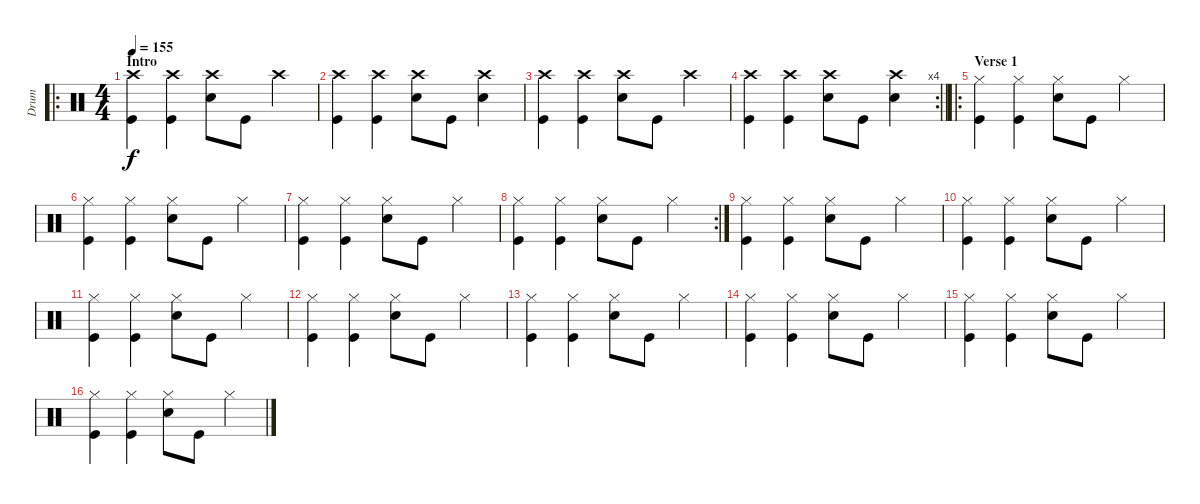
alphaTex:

\track ("Drum" "Drum") {instrument percussion}
\staff {score}
\articulation defaults
\ro
\ts (4 4)
\section ("" "Intro")
\tempo 155
\clef neutral
\ks c
("Crash high (hit)" "Kick (hit)").4{dy f} ("Crash high (hit)" "Kick (hit)").4 ("Crash high (hit)" "Snare (hit) 2").8 "Kick (hit)".8 "Crash high (hit)".4 |
("Crash high (hit)" "Kick (hit)").4 ("Crash high (hit)" "Kick (hit)").4 ("Crash high (hit)" "Snare (hit) 2").8 "Kick (hit)".8 ("Crash high (hit)" "Snare (hit) 2").4 |
("Crash high (hit)" "Kick (hit)").4 ("Crash high (hit)" "Kick (hit)").4 ("Crash high (hit)" "Snare (hit) 2").8 "Kick (hit)".8 "Crash high (hit)".4 |
\rc 4
\barLineRight lightlight
("Crash high (hit)" "Kick (hit)").4 ("Crash high (hit)" "Kick (hit)").4 ("Crash high (hit)" "Snare (hit) 2").8 "Kick (hit)".8 ("Crash high (hit)" "Snare (hit) 2").4 |
\ro
\section ("" "Verse 1")
("Hi-Hat (closed)" "Kick (hit)").4 ("Hi-Hat (closed)" "Kick (hit)").4 ("Hi-Hat (closed)" "Snare (hit) 2").8 "Kick (hit)".8 "Hi-Hat (closed)".4 |
("Hi-Hat (closed)" "Kick (hit)").4 ("Hi-Hat (closed)" "Kick (hit)").4 ("Hi-Hat (closed)" "Snare (hit) 2").8 "Kick (hit)".8 "Hi-Hat (closed)".4 |
("Hi-Hat (closed)" "Kick (hit)").4 ("Hi-Hat (closed)" "Kick (hit)").4 ("Hi-Hat (closed)" "Snare (hit) 2").8 "Kick (hit)".8 "Hi-Hat (closed)".4 |
\rc 2
("Hi-Hat (closed)" "Kick (hit)").4 ("Hi-Hat (closed)" "Kick (hit)").4 ("Hi-Hat (closed)" "Snare (hit) 2").8 "Kick (hit)".8 "Hi-Hat (closed)".4 |
("Hi-Hat (closed)" "Kick (hit)").4 ("Hi-Hat (closed)" "Kick (hit)").4 ("Hi-Hat (closed)" "Snare (hit) 2").8 "Kick (hit)".8 "Hi-Hat (closed)".4 |
("Hi-Hat (closed)" "Kick (hit)").4 ("Hi-Hat (closed)" "Kick (hit)").4 ("Hi-Hat (closed)" "Snare (hit) 2").8 "Kick (hit)".8 "Hi-Hat (closed)".4 |
("Hi-Hat (closed)" "Kick (hit)").4 ("Hi-Hat (closed)" "Kick (hit)").4 ("Hi-Hat (closed)" "Snare (hit) 2").8 "Kick (hit)".8 "Hi-Hat (closed)".4 |
("Hi-Hat (closed)" "Kick (hit)").4 ("Hi-Hat (closed)" "Kick (hit)").4 ("Hi-Hat (closed)" "Snare (hit) 2").8 "Kick (hit)".8 "Hi-Hat (closed)".4 |
("Hi-Hat (closed)" "Kick (hit)").4 ("Hi-Hat (closed)" "Kick (hit)").4 ("Hi-Hat (closed)" "Snare (hit) 2").8 "Kick (hit)".8 "Hi-Hat (closed)".4 |
("Hi-Hat (closed)" "Kick (hit)").4 ("Hi-Hat (closed)" "Kick (hit)").4 ("Hi-Hat (closed)" "Snare (hit) 2").8 "Kick (hit)".8 "Hi-Hat (closed)".4 |
("Hi-Hat (closed)" "Kick (hit)").4 ("Hi-Hat (closed)" "Kick (hit)").4 ("Hi-Hat (closed)" "Snare (hit) 2").8 "Kick (hit)".8 "Hi-Hat (closed)".4 |
("Hi-Hat (closed)" "Kick (hit)").4 ("Hi-Hat (closed)" "Kick (hit)").4 ("Hi-Hat (closed)" "Snare (hit) 2").8 "Kick (hit)".8 "Hi-Hat (closed)".4
